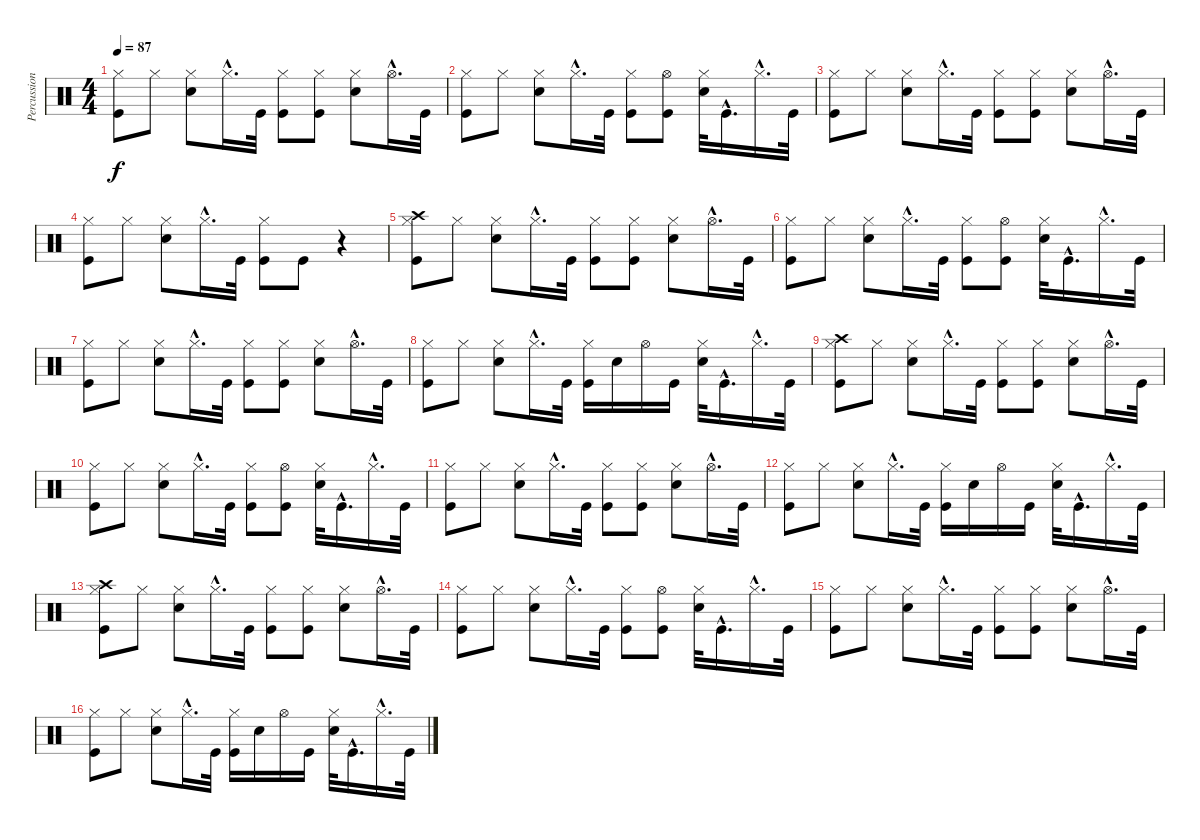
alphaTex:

\track ("Percussion" "Percussion") {instrument percussion}
\staff {score}
\articulation defaults
\ts (4 4)
\tempo 87
\clef neutral
\ks c
("Hi-Hat (closed)" "Kick (hit)").8{dy f} "Hi-Hat (closed)".8 ("Hi-Hat (closed)" "Electric Snare (hit)").8 "Hi-Hat (closed)"{hac}.16{d} "Kick (hit)".32 ("Hi-Hat (closed)" "Kick (hit)").8 ("Hi-Hat (closed)" "Kick (hit)").8 ("Hi-Hat (closed)" "Electric Snare (hit)").8 "Hi-Hat (open)"{hac}.16{d} "Kick (hit)".32 |
("Hi-Hat (closed)" "Kick (hit)").8 "Hi-Hat (closed)".8 ("Hi-Hat (closed)" "Electric Snare (hit)").8 "Hi-Hat (closed)"{hac}.16{d} "Kick (hit)".32 ("Hi-Hat (closed)" "Kick (hit)").8 ("Hi-Hat (open)" "Kick (hit)").8 ("Hi-Hat (closed)" "Electric Snare (hit)").32 "Kick (hit)"{hac}.16{d} "Hi-Hat (closed)"{hac}.16{d} "Kick (hit)".32 |
("Hi-Hat (closed)" "Kick (hit)").8 "Hi-Hat (closed)".8 ("Hi-Hat (closed)" "Electric Snare (hit)").8 "Hi-Hat (closed)"{hac}.16{d} "Kick (hit)".32 ("Hi-Hat (closed)" "Kick (hit)").8 ("Hi-Hat (closed)" "Kick (hit)").8 ("Hi-Hat (closed)" "Electric Snare (hit)").8 "Hi-Hat (open)"{hac}.16{d} "Kick (hit)".32 |
("Hi-Hat (closed)" "Kick (hit)").8 "Hi-Hat (closed)".8 ("Hi-Hat (closed)" "Electric Snare (hit)").8 "Hi-Hat (closed)"{hac}.16{d} "Kick (hit)".32 ("Hi-Hat (closed)" "Kick (hit)").8 "Kick (hit)".8 r.4 |
("Crash high (hit)" "Hi-Hat (closed)" "Kick (hit)").8 "Hi-Hat (closed)".8 ("Hi-Hat (closed)" "Electric Snare (hit)").8 "Hi-Hat (closed)"{hac}.16{d} "Kick (hit)".32 ("Hi-Hat (closed)" "Kick (hit)").8 ("Hi-Hat (closed)" "Kick (hit)").8 ("Hi-Hat (closed)" "Electric Snare (hit)").8 "Hi-Hat (open)"{hac}.16{d} "Kick (hit)".32 |
("Hi-Hat (closed)" "Kick (hit)").8 "Hi-Hat (closed)".8 ("Hi-Hat (closed)" "Electric Snare (hit)").8 "Hi-Hat (closed)"{hac}.16{d} "Kick (hit)".32 ("Hi-Hat (closed)" "Kick (hit)").8 ("Hi-Hat (open)" "Kick (hit)").8 ("Hi-Hat (closed)" "Electric Snare (hit)").32 "Kick (hit)"{hac}.16{d} "Hi-Hat (closed)"{hac}.16{d} "Kick (hit)".32 |
("Hi-Hat (closed)" "Kick (hit)").8 "Hi-Hat (closed)".8 ("Hi-Hat (closed)" "Electric Snare (hit)").8 "Hi-Hat (closed)"{hac}.16{d} "Kick (hit)".32 ("Hi-Hat (closed)" "Kick (hit)").8 ("Hi-Hat (closed)" "Kick (hit)").8 ("Hi-Hat (closed)" "Electric Snare (hit)").8 "Hi-Hat (open)"{hac}.16{d} "Kick (hit)".32 |
("Hi-Hat (closed)" "Kick (hit)").8 "Hi-Hat (closed)".8 ("Hi-Hat (closed)" "Electric Snare (hit)").8 "Hi-Hat (closed)"{hac}.16{d} "Kick (hit)".32 ("Hi-Hat (closed)" "Kick (hit)").16 "Electric Snare (hit)".16 "Hi-Hat (open)".16 "Kick (hit)".16 ("Hi-Hat (closed)" "Electric Snare (hit)").32 "Kick (hit)"{hac}.16{d} "Hi-Hat (closed)"{hac}.16{d} "Kick (hit)".32 |
("Crash high (hit)" "Hi-Hat (closed)" "Kick (hit)").8 "Hi-Hat (closed)".8 ("Hi-Hat (closed)" "Electric Snare (hit)").8 "Hi-Hat (closed)"{hac}.16{d} "Kick (hit)".32 ("Hi-Hat (closed)" "Kick (hit)").8 ("Hi-Hat (closed)" "Kick (hit)").8 ("Hi-Hat (closed)" "Electric Snare (hit)").8 "Hi-Hat (open)"{hac}.16{d} "Kick (hit)".32 |
("Hi-Hat (closed)" "Kick (hit)").8 "Hi-Hat (closed)".8 ("Hi-Hat (closed)" "Electric Snare (hit)").8 "Hi-Hat (closed)"{hac}.16{d} "Kick (hit)".32 ("Hi-Hat (closed)" "Kick (hit)").8 ("Hi-Hat (open)" "Kick (hit)").8 ("Hi-Hat (closed)" "Electric Snare (hit)").32 "Kick (hit)"{hac}.16{d} "Hi-Hat (closed)"{hac}.16{d} "Kick (hit)".32 |
("Hi-Hat (closed)" "Kick (hit)").8 "Hi-Hat (closed)".8 ("Hi-Hat (closed)" "Electric Snare (hit)").8 "Hi-Hat (closed)"{hac}.16{d} "Kick (hit)".32 ("Hi-Hat (closed)" "Kick (hit)").8 ("Hi-Hat (closed)" "Kick (hit)").8 ("Hi-Hat (closed)" "Electric Snare (hit)").8 "Hi-Hat (open)"{hac}.16{d} "Kick (hit)".32 |
("Hi-Hat (closed)" "Kick (hit)").8 "Hi-Hat (closed)".8 ("Hi-Hat (closed)" "Electric Snare (hit)").8 "Hi-Hat (closed)"{hac}.16{d} "Kick (hit)".32 ("Hi-Hat (closed)" "Kick (hit)").16 "Electric Snare (hit)".16 "Hi-Hat (open)".16 "Kick (hit)".16 ("Hi-Hat (closed)" "Electric Snare (hit)").32 "Kick (hit)"{hac}.16{d} "Hi-Hat (closed)"{hac}.16{d} "Kick (hit)".32 |
("Crash high (hit)" "Hi-Hat (closed)" "Kick (hit)").8 "Hi-Hat (closed)".8 ("Hi-Hat (closed)" "Electric Snare (hit)").8 "Hi-Hat (closed)"{hac}.16{d} "Kick (hit)".32 ("Hi-Hat (closed)" "Kick (hit)").8 ("Hi-Hat (closed)" "Kick (hit)").8 ("Hi-Hat (closed)" "Electric Snare (hit)").8 "Hi-Hat (open)"{hac}.16{d} "Kick (hit)".32 |
("Hi-Hat (closed)" "Kick (hit)").8 "Hi-Hat (closed)".8 ("Hi-Hat (closed)" "Electric Snare (hit)").8 "Hi-Hat (closed)"{hac}.16{d} "Kick (hit)".32 ("Hi-Hat (closed)" "Kick (hit)").8 ("Hi-Hat (open)" "Kick (hit)").8 ("Hi-Hat (closed)" "Electric Snare (hit)").32 "Kick (hit)"{hac}.16{d} "Hi-Hat (closed)"{hac}.16{d} "Kick (hit)".32 |
("Hi-Hat (closed)" "Kick (hit)").8 "Hi-Hat (closed)".8 ("Hi-Hat (closed)" "Electric Snare (hit)").8 "Hi-Hat (closed)"{hac}.16{d} "Kick (hit)".32 ("Hi-Hat (closed)" "Kick (hit)").8 ("Hi-Hat (closed)" "Kick (hit)").8 ("Hi-Hat (closed)" "Electric Snare (hit)").8 "Hi-Hat (open)"{hac}.16{d} "Kick (hit)".32 |
("Hi-Hat (closed)" "Kick (hit)").8 "Hi-Hat (closed)".8 ("Hi-Hat (closed)" "Electric Snare (hit)").8 "Hi-Hat (closed)"{hac}.16{d} "Kick (hit)".32 ("Hi-Hat (closed)" "Kick (hit)").16 "Electric Snare (hit)".16 "Hi-Hat (open)".16 "Kick (hit)".16 ("Hi-Hat (closed)" "Electric Snare (hit)").32 "Kick (hit)"{hac}.16{d} "Hi-Hat (closed)"{hac}.16{d} "Kick (hit)".32
